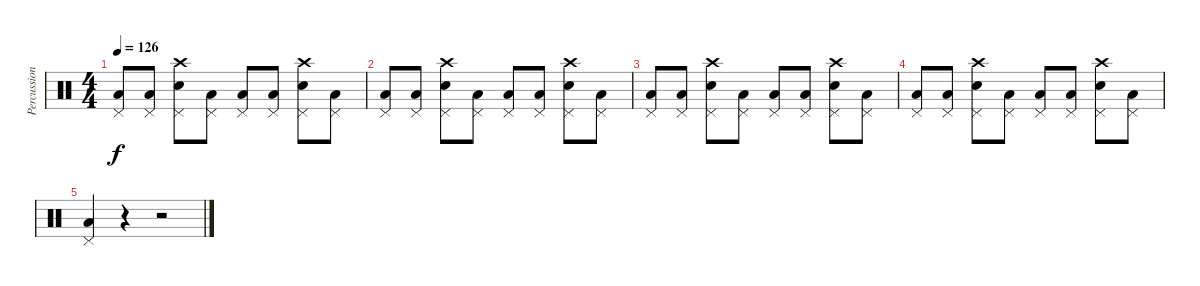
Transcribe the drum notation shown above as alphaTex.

\track ("Percussion" "Percussion") {instrument percussion}
\staff {score}
\articulation defaults
\ts (4 4)
\tempo 126
\clef neutral
\ks c
("Low Floor Tom (hit)" "Pedal Hi-Hat (hit)").8{dy f} ("Pedal Hi-Hat (hit)" "Low Tom (hit)").8 ("Electric Snare (hit)" "Crash high (hit)" "Pedal Hi-Hat (hit)").8 ("Pedal Hi-Hat (hit)" "Low Tom (hit)").8 ("Low Floor Tom (hit)" "Pedal Hi-Hat (hit)").8 ("Low Floor Tom (hit)" "Pedal Hi-Hat (hit)").8 ("Electric Snare (hit)" "Crash high (hit)" "Pedal Hi-Hat (hit)").8 ("Pedal Hi-Hat (hit)" "Low Tom (hit)").8 |
("Low Floor Tom (hit)" "Pedal Hi-Hat (hit)").8 ("Pedal Hi-Hat (hit)" "Low Tom (hit)").8 ("Electric Snare (hit)" "Crash high (hit)" "Pedal Hi-Hat (hit)").8 ("Pedal Hi-Hat (hit)" "Low Tom (hit)").8 ("Low Floor Tom (hit)" "Pedal Hi-Hat (hit)").8 ("Low Floor Tom (hit)" "Pedal Hi-Hat (hit)").8 ("Electric Snare (hit)" "Crash high (hit)" "Pedal Hi-Hat (hit)").8 ("Pedal Hi-Hat (hit)" "Low Tom (hit)").8 |
("Low Floor Tom (hit)" "Pedal Hi-Hat (hit)").8 ("Pedal Hi-Hat (hit)" "Low Tom (hit)").8 ("Electric Snare (hit)" "Crash high (hit)" "Pedal Hi-Hat (hit)").8 ("Pedal Hi-Hat (hit)" "Low Tom (hit)").8 ("Low Floor Tom (hit)" "Pedal Hi-Hat (hit)").8 ("Low Floor Tom (hit)" "Pedal Hi-Hat (hit)").8 ("Electric Snare (hit)" "Crash high (hit)" "Pedal Hi-Hat (hit)").8 ("Pedal Hi-Hat (hit)" "Low Tom (hit)").8 |
("Low Floor Tom (hit)" "Pedal Hi-Hat (hit)").8 ("Pedal Hi-Hat (hit)" "Low Tom (hit)").8 ("Electric Snare (hit)" "Crash high (hit)" "Pedal Hi-Hat (hit)").8 ("Pedal Hi-Hat (hit)" "Low Tom (hit)").8 ("Low Floor Tom (hit)" "Pedal Hi-Hat (hit)").8 ("Low Floor Tom (hit)" "Pedal Hi-Hat (hit)").8 ("Electric Snare (hit)" "Crash high (hit)" "Pedal Hi-Hat (hit)").8 ("Pedal Hi-Hat (hit)" "Low Tom (hit)").8 |
("Low Floor Tom (hit)" "Pedal Hi-Hat (hit)").4 r.4 r.2
